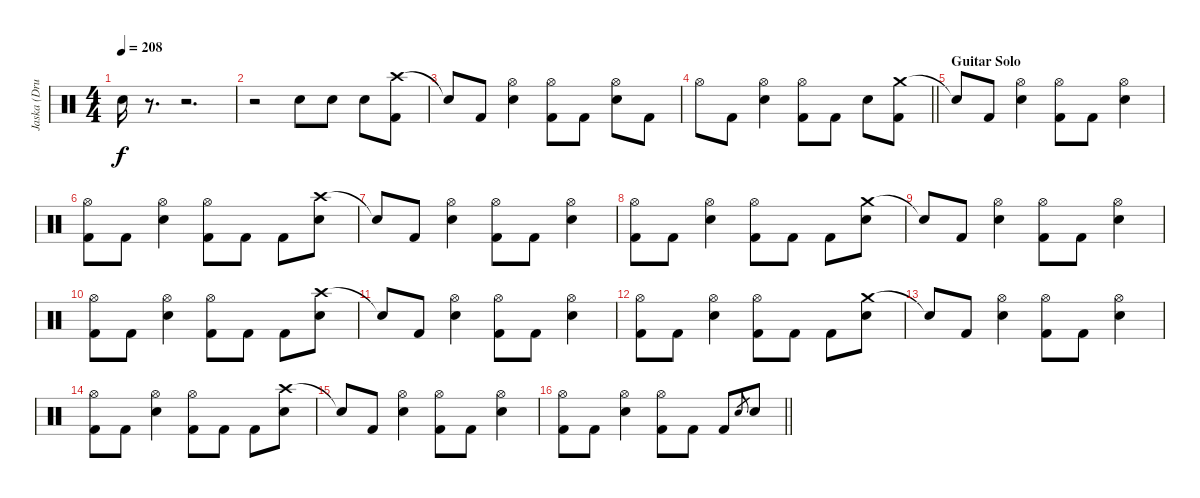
\track ("Jaska (Drums)" "Jaska (Dru") {instrument percussion}
\staff {score}
\articulation defaults
\ts (4 4)
\tempo 208
\clef neutral
\ks c "Snare (hit)"{t}.16{dy f}
r.8{d volume 0} r.2{d} |
r.2 "Electric Snare (hit)".8{volume 16} "Electric Snare (hit)".8 "Electric Snare (hit)".8 ("Crash high (hit)" "Kick (hit) 2").8 |
"Snare (hit)"{t}.8 "Kick (hit) 2".8 ("Hi-Hat (open)" "Electric Snare (hit)").4 ("Hi-Hat (open)" "Kick (hit) 2").8 "Kick (hit) 2".8 ("Hi-Hat (open)" "Electric Snare (hit)").8 "Kick (hit) 2".8 |
\barLineRight lightlight "Hi-Hat (open)".8 "Kick (hit) 2".8
("Hi-Hat (open)" "Electric Snare (hit)").4 ("Hi-Hat (open)" "Kick (hit) 2").8 "Kick (hit) 2".8 "Electric Snare (hit)".8 ("Crash medium (hit)" "Kick (hit) 2").8{volume 14} |
\section ("" "Guitar Solo")
"Snare (hit)"{t}.8 "Kick (hit) 2".8 ("Hi-Hat (open)" "Electric Snare (hit)").4 ("Hi-Hat (open)" "Kick (hit) 2").8 "Kick (hit) 2".8 ("Hi-Hat (open)" "Electric Snare (hit)").4 |
("Hi-Hat (open)" "Kick (hit) 2").8 "Kick (hit) 2".8 ("Hi-Hat (open)" "Electric Snare (hit)").4 ("Hi-Hat (open)" "Kick (hit) 2").8 "Kick (hit) 2".8 "Kick (hit) 2".8 ("Crash high (hit)" "Electric Snare (hit)").8 |
"Snare (hit)"{t}.8 "Kick (hit) 2".8 ("Hi-Hat (open)" "Electric Snare (hit)").4 ("Hi-Hat (open)" "Kick (hit) 2").8 "Kick (hit) 2".8 ("Hi-Hat (open)" "Electric Snare (hit)").4 |
("Hi-Hat (open)" "Kick (hit) 2").8 "Kick (hit) 2".8 ("Hi-Hat (open)" "Electric Snare (hit)").4 ("Hi-Hat (open)" "Kick (hit) 2").8 "Kick (hit) 2".8 "Kick (hit) 2".8 ("Crash medium (hit)" "Electric Snare (hit)").8 |
"Snare (hit)"{t}.8 "Kick (hit) 2".8 ("Hi-Hat (open)" "Electric Snare (hit)").4 ("Hi-Hat (open)" "Kick (hit) 2").8 "Kick (hit) 2".8 ("Hi-Hat (open)" "Electric Snare (hit)").4 |
("Hi-Hat (open)" "Kick (hit) 2").8 "Kick (hit) 2".8 ("Hi-Hat (open)" "Electric Snare (hit)").4 ("Hi-Hat (open)" "Kick (hit) 2").8 "Kick (hit) 2".8 "Kick (hit) 2".8 ("Crash high (hit)" "Electric Snare (hit)").8 |
"Snare (hit)"{t}.8 "Kick (hit) 2".8 ("Hi-Hat (open)" "Electric Snare (hit)").4 ("Hi-Hat (open)" "Kick (hit) 2").8 "Kick (hit) 2".8 ("Hi-Hat (open)" "Electric Snare (hit)").4 |
("Hi-Hat (open)" "Kick (hit) 2").8 "Kick (hit) 2".8 ("Hi-Hat (open)" "Electric Snare (hit)").4 ("Hi-Hat (open)" "Kick (hit) 2").8 "Kick (hit) 2".8 "Kick (hit) 2".8 ("Crash medium (hit)" "Electric Snare (hit)").8 |
"Snare (hit)"{t}.8 "Kick (hit) 2".8 ("Hi-Hat (open)" "Electric Snare (hit)").4 ("Hi-Hat (open)" "Kick (hit) 2").8 "Kick (hit) 2".8 ("Hi-Hat (open)" "Electric Snare (hit)").4 |
("Hi-Hat (open)" "Kick (hit) 2").8 "Kick (hit) 2".8 ("Hi-Hat (open)" "Electric Snare (hit)").4 ("Hi-Hat (open)" "Kick (hit) 2").8 "Kick (hit) 2".8 "Kick (hit) 2".8 ("Crash high (hit)" "Electric Snare (hit)").8 |
"Snare (hit)"{t}.8 "Kick (hit) 2".8 ("Hi-Hat (open)" "Electric Snare (hit)").4 ("Hi-Hat (open)" "Kick (hit) 2").8 "Kick (hit) 2".8 ("Hi-Hat (open)" "Electric Snare (hit)").4 |
\barLineRight lightlight
("Hi-Hat (open)" "Kick (hit) 2").8 "Kick (hit) 2".8 ("Hi-Hat (open)" "Electric Snare (hit)").4 ("Hi-Hat (open)" "Kick (hit) 2").8 "Kick (hit) 2".8 "Kick (hit) 2".8 "Electric Snare (hit)".8{gr} "Electric Snare (hit)".8{volume 16}
